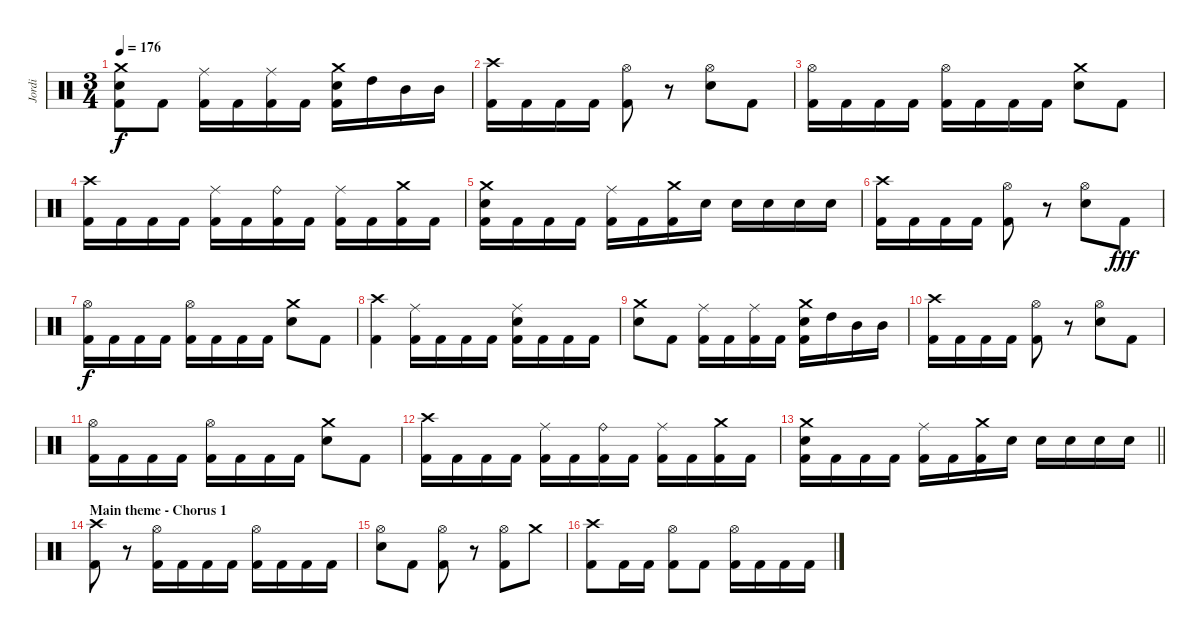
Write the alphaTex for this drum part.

\track ("Jordi" "Jordi") {instrument percussion}
\staff {score}
\articulation defaults
\ts (3 4)
\tempo 176
\clef neutral
\ks c
("Crash medium (hit)" "Snare (hit) 2" "Kick (hit) 2").8{dy f} "Kick (hit) 2".8 ("Ride (middle)" "Kick (hit) 2").16 "Kick (hit) 2".16 ("Ride (middle)" "Kick (hit) 2").16 "Kick (hit) 2".16 ("Crash medium (hit)" "Snare (hit) 2" "Kick (hit) 2").16 "High Tom (hit)".16 "Mid Tom (hit)".16 "Mid Tom (hit)".16 |
("Crash high (hit)" "Kick (hit) 2").16 "Kick (hit) 2".16 "Kick (hit) 2".16 "Kick (hit) 2".16 ("Hi-Hat (open)" "Kick (hit) 2").8 r.8 ("Hi-Hat (open)" "Snare (hit) 2").8 "Kick (hit) 2".8 |
("Hi-Hat (open)" "Kick (hit) 2").16 "Kick (hit) 2".16 "Kick (hit) 2".16 "Kick (hit) 2".16 ("Hi-Hat (open)" "Kick (hit) 2").16 "Kick (hit) 2".16 "Kick (hit) 2".16 "Kick (hit) 2".16 ("Crash medium (hit)" "Snare (hit) 2").8 "Kick (hit) 2".8 |
("Crash high (hit)" "Kick (hit) 2").16 "Kick (hit) 2".16 "Kick (hit) 2".16 "Kick (hit) 2".16 ("Ride (middle)" "Kick (hit) 2").16 "Kick (hit) 2".16 ("Ride (bell)" "Kick (hit) 2").16 "Kick (hit) 2".16 ("Ride (middle)" "Kick (hit) 2").16 "Kick (hit) 2".16 ("Crash medium (hit)" "Kick (hit) 2").16 "Kick (hit) 2".16 |
("Crash medium (hit)" "Snare (hit) 2" "Kick (hit) 2").16 "Kick (hit) 2".16 "Kick (hit) 2".16 "Kick (hit) 2".16 ("Ride (middle)" "Kick (hit) 2").16 "Kick (hit) 2".16 ("Crash medium (hit)" "Kick (hit) 2").16 "Snare (hit) 2".16 "Snare (hit) 2".16 "Snare (hit) 2".16 "Snare (hit) 2".16 "Snare (hit) 2".16 |
("Crash high (hit)" "Kick (hit) 2").16 "Kick (hit) 2".16 "Kick (hit) 2".16 "Kick (hit) 2".16 ("Hi-Hat (open)" "Kick (hit) 2").8 r.8 ("Hi-Hat (open)" "Snare (hit) 2").8 "Kick (hit) 2".8{dy fff} |
("Hi-Hat (open)" "Kick (hit) 2").16{dy f} "Kick (hit) 2".16 "Kick (hit) 2".16 "Kick (hit) 2".16 ("Hi-Hat (open)" "Kick (hit) 2").16 "Kick (hit) 2".16 "Kick (hit) 2".16 "Kick (hit) 2".16 ("Crash medium (hit)" "Snare (hit) 2").8 "Kick (hit) 2".8 |
("Crash high (hit)" "Kick (hit) 2").4 ("Ride (middle)" "Kick (hit) 2").16 "Kick (hit) 2".16 "Kick (hit) 2".16 "Kick (hit) 2".16 ("Ride (middle)" "Snare (hit) 2" "Kick (hit) 2").16 "Kick (hit) 2".16 "Kick (hit) 2".16 "Kick (hit) 2".16 |
("Crash medium (hit)" "Snare (hit) 2").8 "Kick (hit) 2".8 ("Ride (middle)" "Kick (hit) 2").16 "Kick (hit) 2".16 ("Ride (middle)" "Kick (hit) 2").16 "Kick (hit) 2".16 ("Crash medium (hit)" "Snare (hit) 2" "Kick (hit) 2").16 "High Tom (hit)".16 "Mid Tom (hit)".16 "Mid Tom (hit)".16 |
("Crash high (hit)" "Kick (hit) 2").16 "Kick (hit) 2".16 "Kick (hit) 2".16 "Kick (hit) 2".16 ("Hi-Hat (open)" "Kick (hit) 2").8 r.8 ("Hi-Hat (open)" "Snare (hit) 2").8 "Kick (hit) 2".8 |
("Hi-Hat (open)" "Kick (hit) 2").16 "Kick (hit) 2".16 "Kick (hit) 2".16 "Kick (hit) 2".16 ("Hi-Hat (open)" "Kick (hit) 2").16 "Kick (hit) 2".16 "Kick (hit) 2".16 "Kick (hit) 2".16 ("Crash medium (hit)" "Snare (hit) 2").8 "Kick (hit) 2".8 |
("Crash high (hit)" "Kick (hit) 2").16 "Kick (hit) 2".16 "Kick (hit) 2".16 "Kick (hit) 2".16 ("Ride (middle)" "Kick (hit) 2").16 "Kick (hit) 2".16 ("Ride (bell)" "Kick (hit) 2").16 "Kick (hit) 2".16 ("Ride (middle)" "Kick (hit) 2").16 "Kick (hit) 2".16 ("Crash medium (hit)" "Kick (hit) 2").16 "Kick (hit) 2".16 |
\barLineRight lightlight
("Crash medium (hit)" "Snare (hit) 2" "Kick (hit) 2").16 "Kick (hit) 2".16 "Kick (hit) 2".16 "Kick (hit) 2".16 ("Ride (middle)" "Kick (hit) 2").16 "Kick (hit) 2".16 ("Crash medium (hit)" "Kick (hit) 2").16 "Snare (hit) 2".16 "Snare (hit) 2".16 "Snare (hit) 2".16 "Snare (hit) 2".16 "Snare (hit) 2".16 |
\section ("" "Main theme - Chorus 1")
("Crash high (hit)" "Kick (hit) 2").8 r.8 ("Hi-Hat (open)" "Kick (hit) 2").16 "Kick (hit) 2".16 "Kick (hit) 2".16 "Kick (hit) 2".16 ("Hi-Hat (open)" "Kick (hit) 2").16 "Kick (hit) 2".16 "Kick (hit) 2".16 "Kick (hit) 2".16 |
("Hi-Hat (open)" "Snare (hit) 2").8 "Kick (hit) 2".8 ("Hi-Hat (open)" "Kick (hit) 2").8 r.8 ("Hi-Hat (open)" "Kick (hit) 2").8 "Crash medium (hit)".8 |
("Crash high (hit)" "Kick (hit) 2").8 "Kick (hit) 2".16 "Kick (hit) 2".16 ("Hi-Hat (open)" "Kick (hit) 2").8 "Kick (hit) 2".8 ("Hi-Hat (open)" "Kick (hit) 2").16 "Kick (hit) 2".16 "Kick (hit) 2".16 "Kick (hit) 2".16
